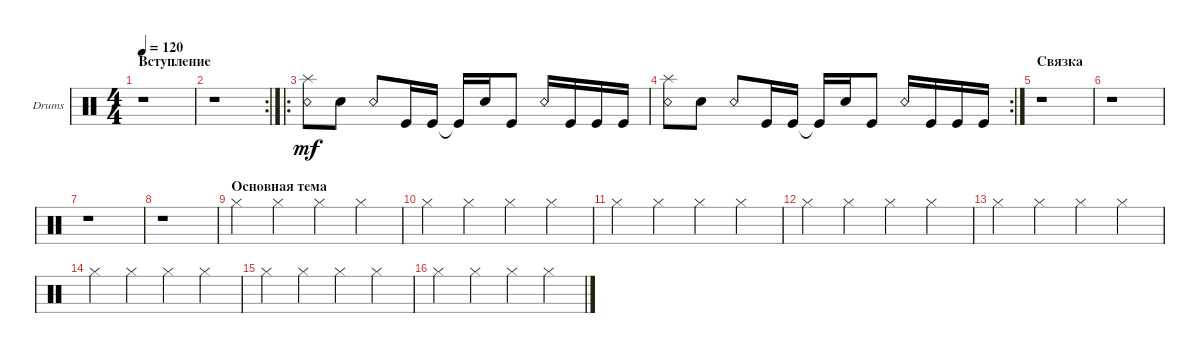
\bracketExtendMode groupsimilarinstruments
\firstSystemTrackNameOrientation horizontal
\otherSystemsTrackNameOrientation horizontal
\track ("БАРАБАНЫ" "Drums") {instrument percussion}
\staff {score}
\articulation defaults
\ts (4 4)
\section ("" "Вступление")
\tempo 120
\clef neutral
\ks c
r.1{dy mf} |
\rc 2
r.1 |
\ro
("Snare (rim shot)" "Splash (hit)").8 "Snare (hit) 2".8 "Snare (rim shot)".8 "Kick (hit)".16 "Kick (hit)".16 "Kick (hit)"{t}.16 "Snare (hit) 2".16 "Kick (hit)".8 "Snare (rim shot)".16 "Kick (hit)".16 "Kick (hit)".16 "Kick (hit)".16 |
\rc 2
("Snare (rim shot)" "Splash (hit)").8 "Snare (hit) 2".8 "Snare (rim shot)".8 "Kick (hit)".16 "Kick (hit)".16 "Kick (hit)"{t}.16 "Snare (hit) 2".16 "Kick (hit)".8 "Snare (rim shot)".16 "Kick (hit)".16 "Kick (hit)".16 "Kick (hit)".16 |
\section ("" "Связка")
r.1 |
r.1 |
r.1 |
r.1 |
\section ("" "Основная тема")
"Hi-Hat (closed)".4 "Hi-Hat (closed)".4 "Hi-Hat (closed)".4 "Hi-Hat (closed)".4 |
"Hi-Hat (closed)".4 "Hi-Hat (closed)".4 "Hi-Hat (closed)".4 "Hi-Hat (closed)".4 |
"Hi-Hat (closed)".4 "Hi-Hat (closed)".4 "Hi-Hat (closed)".4 "Hi-Hat (closed)".4 |
"Hi-Hat (closed)".4 "Hi-Hat (closed)".4 "Hi-Hat (closed)".4 "Hi-Hat (closed)".4 |
"Hi-Hat (closed)".4 "Hi-Hat (closed)".4 "Hi-Hat (closed)".4 "Hi-Hat (closed)".4 |
"Hi-Hat (closed)".4 "Hi-Hat (closed)".4 "Hi-Hat (closed)".4 "Hi-Hat (closed)".4 |
"Hi-Hat (closed)".4 "Hi-Hat (closed)".4 "Hi-Hat (closed)".4 "Hi-Hat (closed)".4 |
"Hi-Hat (closed)".4 "Hi-Hat (closed)".4 "Hi-Hat (closed)".4 "Hi-Hat (closed)".4
